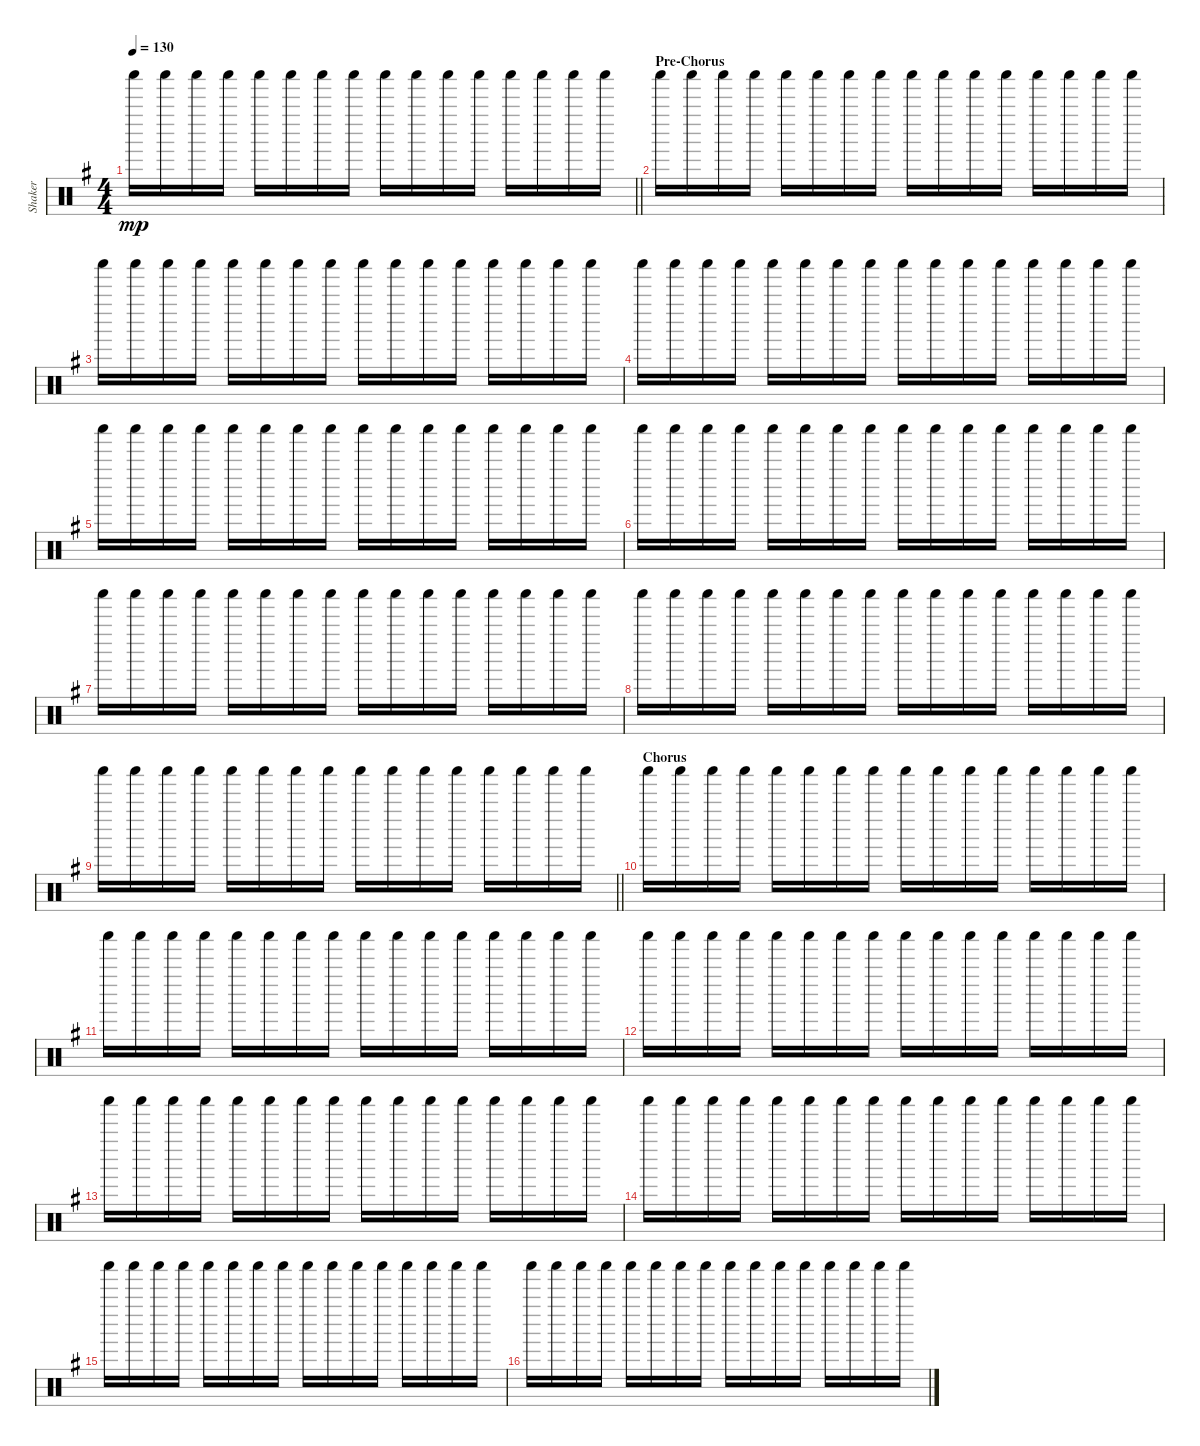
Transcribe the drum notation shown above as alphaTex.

\track ("Shaker" "Shaker") {instrument percussion}
\staff {score}
\articulation defaults
\ts (4 4)
\tempo 130
\clef neutral
\barLineRight lightlight
\ks g "Shaker (hit)".16{dy mp} "Shaker (hit)".16 "Shaker (hit)".16 "Shaker (hit)".16 "Shaker (hit)".16 "Shaker (hit)".16 "Shaker (hit)".16 "Shaker (hit)".16 "Shaker (hit)".16 "Shaker (hit)".16 "Shaker (hit)".16 "Shaker (hit)".16 "Shaker (hit)".16 "Shaker (hit)".16 "Shaker (hit)".16 "Shaker (hit)".16
|
\section ("" "Pre-Chorus")
"Shaker (hit)".16 "Shaker (hit)".16 "Shaker (hit)".16 "Shaker (hit)".16 "Shaker (hit)".16 "Shaker (hit)".16 "Shaker (hit)".16 "Shaker (hit)".16 "Shaker (hit)".16 "Shaker (hit)".16 "Shaker (hit)".16 "Shaker (hit)".16 "Shaker (hit)".16 "Shaker (hit)".16 "Shaker (hit)".16 "Shaker (hit)".16 |
"Shaker (hit)".16 "Shaker (hit)".16 "Shaker (hit)".16 "Shaker (hit)".16 "Shaker (hit)".16 "Shaker (hit)".16 "Shaker (hit)".16 "Shaker (hit)".16 "Shaker (hit)".16 "Shaker (hit)".16 "Shaker (hit)".16 "Shaker (hit)".16 "Shaker (hit)".16 "Shaker (hit)".16 "Shaker (hit)".16 "Shaker (hit)".16 |
"Shaker (hit)".16 "Shaker (hit)".16 "Shaker (hit)".16 "Shaker (hit)".16 "Shaker (hit)".16 "Shaker (hit)".16 "Shaker (hit)".16 "Shaker (hit)".16 "Shaker (hit)".16 "Shaker (hit)".16 "Shaker (hit)".16 "Shaker (hit)".16 "Shaker (hit)".16 "Shaker (hit)".16 "Shaker (hit)".16 "Shaker (hit)".16 |
"Shaker (hit)".16 "Shaker (hit)".16 "Shaker (hit)".16 "Shaker (hit)".16 "Shaker (hit)".16 "Shaker (hit)".16 "Shaker (hit)".16 "Shaker (hit)".16 "Shaker (hit)".16 "Shaker (hit)".16 "Shaker (hit)".16 "Shaker (hit)".16 "Shaker (hit)".16 "Shaker (hit)".16 "Shaker (hit)".16 "Shaker (hit)".16 |
"Shaker (hit)".16 "Shaker (hit)".16 "Shaker (hit)".16 "Shaker (hit)".16 "Shaker (hit)".16 "Shaker (hit)".16 "Shaker (hit)".16 "Shaker (hit)".16 "Shaker (hit)".16 "Shaker (hit)".16 "Shaker (hit)".16 "Shaker (hit)".16 "Shaker (hit)".16 "Shaker (hit)".16 "Shaker (hit)".16 "Shaker (hit)".16 |
"Shaker (hit)".16 "Shaker (hit)".16 "Shaker (hit)".16 "Shaker (hit)".16 "Shaker (hit)".16 "Shaker (hit)".16 "Shaker (hit)".16 "Shaker (hit)".16 "Shaker (hit)".16 "Shaker (hit)".16 "Shaker (hit)".16 "Shaker (hit)".16 "Shaker (hit)".16 "Shaker (hit)".16 "Shaker (hit)".16 "Shaker (hit)".16 |
"Shaker (hit)".16 "Shaker (hit)".16 "Shaker (hit)".16 "Shaker (hit)".16 "Shaker (hit)".16 "Shaker (hit)".16 "Shaker (hit)".16 "Shaker (hit)".16 "Shaker (hit)".16 "Shaker (hit)".16 "Shaker (hit)".16 "Shaker (hit)".16 "Shaker (hit)".16 "Shaker (hit)".16 "Shaker (hit)".16 "Shaker (hit)".16 |
\barLineRight lightlight "Shaker (hit)".16 "Shaker (hit)".16 "Shaker (hit)".16 "Shaker (hit)".16 "Shaker (hit)".16 "Shaker (hit)".16 "Shaker (hit)".16 "Shaker (hit)".16 "Shaker (hit)".16 "Shaker (hit)".16 "Shaker (hit)".16 "Shaker (hit)".16 "Shaker (hit)".16 "Shaker (hit)".16 "Shaker (hit)".16 "Shaker (hit)".16
|
\section ("" "Chorus")
"Shaker (hit)".16 "Shaker (hit)".16 "Shaker (hit)".16 "Shaker (hit)".16 "Shaker (hit)".16 "Shaker (hit)".16 "Shaker (hit)".16 "Shaker (hit)".16 "Shaker (hit)".16 "Shaker (hit)".16 "Shaker (hit)".16 "Shaker (hit)".16 "Shaker (hit)".16 "Shaker (hit)".16 "Shaker (hit)".16 "Shaker (hit)".16 |
"Shaker (hit)".16 "Shaker (hit)".16 "Shaker (hit)".16 "Shaker (hit)".16 "Shaker (hit)".16 "Shaker (hit)".16 "Shaker (hit)".16 "Shaker (hit)".16 "Shaker (hit)".16 "Shaker (hit)".16 "Shaker (hit)".16 "Shaker (hit)".16 "Shaker (hit)".16 "Shaker (hit)".16 "Shaker (hit)".16 "Shaker (hit)".16 |
"Shaker (hit)".16 "Shaker (hit)".16 "Shaker (hit)".16 "Shaker (hit)".16 "Shaker (hit)".16 "Shaker (hit)".16 "Shaker (hit)".16 "Shaker (hit)".16 "Shaker (hit)".16 "Shaker (hit)".16 "Shaker (hit)".16 "Shaker (hit)".16 "Shaker (hit)".16 "Shaker (hit)".16 "Shaker (hit)".16 "Shaker (hit)".16 |
"Shaker (hit)".16 "Shaker (hit)".16 "Shaker (hit)".16 "Shaker (hit)".16 "Shaker (hit)".16 "Shaker (hit)".16 "Shaker (hit)".16 "Shaker (hit)".16 "Shaker (hit)".16 "Shaker (hit)".16 "Shaker (hit)".16 "Shaker (hit)".16 "Shaker (hit)".16 "Shaker (hit)".16 "Shaker (hit)".16 "Shaker (hit)".16 |
"Shaker (hit)".16 "Shaker (hit)".16 "Shaker (hit)".16 "Shaker (hit)".16 "Shaker (hit)".16 "Shaker (hit)".16 "Shaker (hit)".16 "Shaker (hit)".16 "Shaker (hit)".16 "Shaker (hit)".16 "Shaker (hit)".16 "Shaker (hit)".16 "Shaker (hit)".16 "Shaker (hit)".16 "Shaker (hit)".16 "Shaker (hit)".16 |
"Shaker (hit)".16 "Shaker (hit)".16 "Shaker (hit)".16 "Shaker (hit)".16 "Shaker (hit)".16 "Shaker (hit)".16 "Shaker (hit)".16 "Shaker (hit)".16 "Shaker (hit)".16 "Shaker (hit)".16 "Shaker (hit)".16 "Shaker (hit)".16 "Shaker (hit)".16 "Shaker (hit)".16 "Shaker (hit)".16 "Shaker (hit)".16 |
"Shaker (hit)".16 "Shaker (hit)".16 "Shaker (hit)".16 "Shaker (hit)".16 "Shaker (hit)".16 "Shaker (hit)".16 "Shaker (hit)".16 "Shaker (hit)".16 "Shaker (hit)".16 "Shaker (hit)".16 "Shaker (hit)".16 "Shaker (hit)".16 "Shaker (hit)".16 "Shaker (hit)".16 "Shaker (hit)".16 "Shaker (hit)".16
